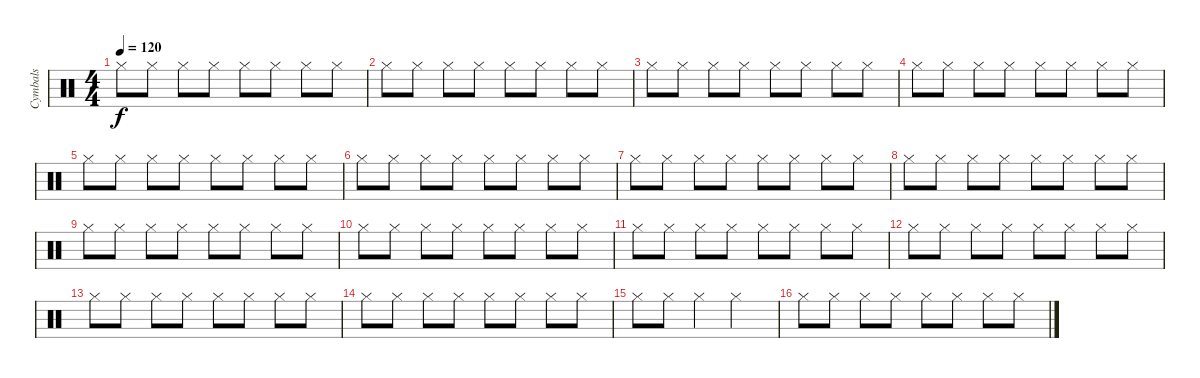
\track ("Cymbals" "Cymbals") {instrument percussion}
\staff {score}
\articulation defaults
\ts (4 4)
\tempo 120
\clef neutral
\ks c "Hi-Hat (closed)".8{dy f} "Hi-Hat (closed)".8 "Hi-Hat (closed)".8 "Hi-Hat (closed)".8 "Hi-Hat (closed)".8 "Hi-Hat (closed)".8 "Hi-Hat (closed)".8 "Hi-Hat (closed)".8
|
"Hi-Hat (closed)".8 "Hi-Hat (closed)".8 "Hi-Hat (closed)".8 "Hi-Hat (closed)".8 "Hi-Hat (closed)".8 "Hi-Hat (closed)".8 "Hi-Hat (closed)".8 "Hi-Hat (closed)".8 |
"Hi-Hat (closed)".8 "Hi-Hat (closed)".8 "Hi-Hat (closed)".8 "Hi-Hat (closed)".8 "Hi-Hat (closed)".8 "Hi-Hat (closed)".8 "Hi-Hat (closed)".8 "Hi-Hat (closed)".8 |
"Hi-Hat (closed)".8 "Hi-Hat (closed)".8 "Hi-Hat (closed)".8 "Hi-Hat (closed)".8 "Hi-Hat (closed)".8 "Hi-Hat (closed)".8 "Hi-Hat (closed)".8 "Hi-Hat (closed)".8 |
"Hi-Hat (closed)".8 "Hi-Hat (closed)".8 "Hi-Hat (closed)".8 "Hi-Hat (closed)".8 "Hi-Hat (closed)".8 "Hi-Hat (closed)".8 "Hi-Hat (closed)".8 "Hi-Hat (closed)".8 |
"Hi-Hat (closed)".8 "Hi-Hat (closed)".8 "Hi-Hat (closed)".8 "Hi-Hat (closed)".8 "Hi-Hat (closed)".8 "Hi-Hat (closed)".8 "Hi-Hat (closed)".8 "Hi-Hat (closed)".8 |
"Hi-Hat (closed)".8 "Hi-Hat (closed)".8 "Hi-Hat (closed)".8 "Hi-Hat (closed)".8 "Hi-Hat (closed)".8 "Hi-Hat (closed)".8 "Hi-Hat (closed)".8 "Hi-Hat (closed)".8 |
"Hi-Hat (closed)".8 "Hi-Hat (closed)".8 "Hi-Hat (closed)".8 "Hi-Hat (closed)".8 "Hi-Hat (closed)".8 "Hi-Hat (closed)".8 "Hi-Hat (closed)".8 "Hi-Hat (closed)".8 |
"Hi-Hat (closed)".8 "Hi-Hat (closed)".8 "Hi-Hat (closed)".8 "Hi-Hat (closed)".8 "Hi-Hat (closed)".8 "Hi-Hat (closed)".8 "Hi-Hat (closed)".8 "Hi-Hat (closed)".8 |
"Hi-Hat (closed)".8 "Hi-Hat (closed)".8 "Hi-Hat (closed)".8 "Hi-Hat (closed)".8 "Hi-Hat (closed)".8 "Hi-Hat (closed)".8 "Hi-Hat (closed)".8 "Hi-Hat (closed)".8 |
"Hi-Hat (closed)".8 "Hi-Hat (closed)".8 "Hi-Hat (closed)".8 "Hi-Hat (closed)".8 "Hi-Hat (closed)".8 "Hi-Hat (closed)".8 "Hi-Hat (closed)".8 "Hi-Hat (closed)".8 |
"Hi-Hat (closed)".8 "Hi-Hat (closed)".8 "Hi-Hat (closed)".8 "Hi-Hat (closed)".8 "Hi-Hat (closed)".8 "Hi-Hat (closed)".8 "Hi-Hat (closed)".8 "Hi-Hat (closed)".8 |
"Hi-Hat (closed)".8 "Hi-Hat (closed)".8 "Hi-Hat (closed)".8 "Hi-Hat (closed)".8 "Hi-Hat (closed)".8 "Hi-Hat (closed)".8 "Hi-Hat (closed)".8 "Hi-Hat (closed)".8 |
"Hi-Hat (closed)".8 "Hi-Hat (closed)".8 "Hi-Hat (closed)".8 "Hi-Hat (closed)".8 "Hi-Hat (closed)".8 "Hi-Hat (closed)".8 "Hi-Hat (closed)".8 "Hi-Hat (closed)".8 |
"Hi-Hat (closed)".8 "Hi-Hat (closed)".8 "Hi-Hat (closed)".4 "Hi-Hat (closed)".2 |
"Hi-Hat (closed)".8 "Hi-Hat (closed)".8 "Hi-Hat (closed)".8 "Hi-Hat (closed)".8 "Hi-Hat (closed)".8 "Hi-Hat (closed)".8 "Hi-Hat (closed)".8 "Hi-Hat (closed)".8
